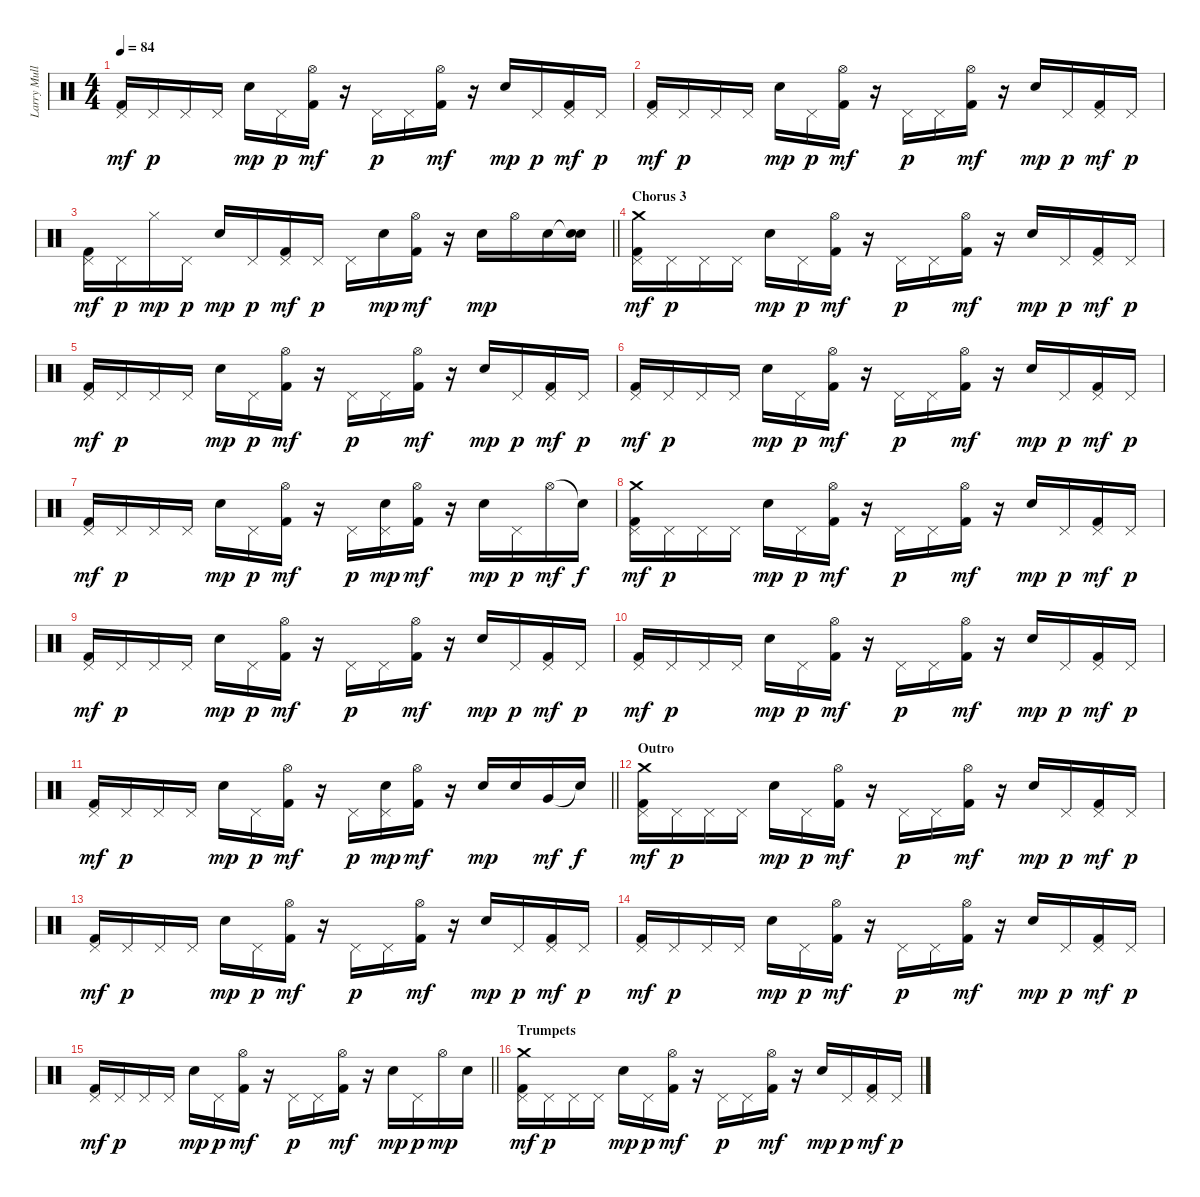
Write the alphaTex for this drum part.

\track ("Larry Mullen Jr." "Larry Mull") {instrument percussion}
\staff {score}
\articulation defaults
\ts (4 4)
\tempo 84
\clef neutral
\ks c
("Pedal Hi-Hat (hit)" "Kick (hit) 2").16{dy mf} "Pedal Hi-Hat (hit)".16{dy p} "Pedal Hi-Hat (hit)".16 "Pedal Hi-Hat (hit)".16 "Electric Snare (hit)".16{dy mp} "Pedal Hi-Hat (hit)".16{dy p} ("Hi-Hat (open)" "Kick (hit) 2").16{dy mf} r.16 "Pedal Hi-Hat (hit)".16{dy p} "Pedal Hi-Hat (hit)".16 ("Hi-Hat (open)" "Kick (hit) 2").16{dy mf} r.16 "Electric Snare (hit)".16{dy mp} "Pedal Hi-Hat (hit)".16{dy p} ("Pedal Hi-Hat (hit)" "Kick (hit) 2").16{dy mf} "Pedal Hi-Hat (hit)".16{dy p} |
("Pedal Hi-Hat (hit)" "Kick (hit) 2").16{dy mf} "Pedal Hi-Hat (hit)".16{dy p} "Pedal Hi-Hat (hit)".16 "Pedal Hi-Hat (hit)".16 "Electric Snare (hit)".16{dy mp} "Pedal Hi-Hat (hit)".16{dy p} ("Hi-Hat (open)" "Kick (hit) 2").16{dy mf} r.16 "Pedal Hi-Hat (hit)".16{dy p} "Pedal Hi-Hat (hit)".16 ("Hi-Hat (open)" "Kick (hit) 2").16{dy mf} r.16 "Electric Snare (hit)".16{dy mp} "Pedal Hi-Hat (hit)".16{dy p} ("Pedal Hi-Hat (hit)" "Kick (hit) 2").16{dy mf} "Pedal Hi-Hat (hit)".16{dy p} |
\barLineRight lightlight
("Pedal Hi-Hat (hit)" "Kick (hit) 2").16{dy mf} "Pedal Hi-Hat (hit)".16{dy p} "Hi-Hat (closed)".16{dy mp} "Pedal Hi-Hat (hit)".16{dy p} "Electric Snare (hit)".16{dy mp} "Pedal Hi-Hat (hit)".16{dy p} ("Pedal Hi-Hat (hit)" "Kick (hit) 2").16{dy mf} "Pedal Hi-Hat (hit)".16{dy p} "Pedal Hi-Hat (hit)".16 "Electric Snare (hit)".16{dy mp} ("Hi-Hat (open)" "Kick (hit) 2").16{dy mf} r.16 "Electric Snare (hit)".16{dy mp} "Hi-Hat (open)".16 "Electric Snare (hit)".16 ("Snare (hit)"{t} "Electric Snare (hit)").16 |
\section ("" "Chorus 3")
("Pedal Hi-Hat (hit)" "Crash medium (hit)" "Kick (hit) 2").16{dy mf} "Pedal Hi-Hat (hit)".16{dy p} "Pedal Hi-Hat (hit)".16 "Pedal Hi-Hat (hit)".16 "Electric Snare (hit)".16{dy mp} "Pedal Hi-Hat (hit)".16{dy p} ("Hi-Hat (open)" "Kick (hit) 2").16{dy mf} r.16 "Pedal Hi-Hat (hit)".16{dy p} "Pedal Hi-Hat (hit)".16 ("Hi-Hat (open)" "Kick (hit) 2").16{dy mf} r.16 "Electric Snare (hit)".16{dy mp} "Pedal Hi-Hat (hit)".16{dy p} ("Pedal Hi-Hat (hit)" "Kick (hit) 2").16{dy mf} "Pedal Hi-Hat (hit)".16{dy p} |
("Pedal Hi-Hat (hit)" "Kick (hit) 2").16{dy mf} "Pedal Hi-Hat (hit)".16{dy p} "Pedal Hi-Hat (hit)".16 "Pedal Hi-Hat (hit)".16 "Electric Snare (hit)".16{dy mp} "Pedal Hi-Hat (hit)".16{dy p} ("Hi-Hat (open)" "Kick (hit) 2").16{dy mf} r.16 "Pedal Hi-Hat (hit)".16{dy p} "Pedal Hi-Hat (hit)".16 ("Hi-Hat (open)" "Kick (hit) 2").16{dy mf} r.16 "Electric Snare (hit)".16{dy mp} "Pedal Hi-Hat (hit)".16{dy p} ("Pedal Hi-Hat (hit)" "Kick (hit) 2").16{dy mf} "Pedal Hi-Hat (hit)".16{dy p} |
("Pedal Hi-Hat (hit)" "Kick (hit) 2").16{dy mf} "Pedal Hi-Hat (hit)".16{dy p} "Pedal Hi-Hat (hit)".16 "Pedal Hi-Hat (hit)".16 "Electric Snare (hit)".16{dy mp} "Pedal Hi-Hat (hit)".16{dy p} ("Hi-Hat (open)" "Kick (hit) 2").16{dy mf} r.16 "Pedal Hi-Hat (hit)".16{dy p} "Pedal Hi-Hat (hit)".16 ("Hi-Hat (open)" "Kick (hit) 2").16{dy mf} r.16 "Electric Snare (hit)".16{dy mp} "Pedal Hi-Hat (hit)".16{dy p} ("Pedal Hi-Hat (hit)" "Kick (hit) 2").16{dy mf} "Pedal Hi-Hat (hit)".16{dy p} |
("Pedal Hi-Hat (hit)" "Kick (hit) 2").16{dy mf} "Pedal Hi-Hat (hit)".16{dy p} "Pedal Hi-Hat (hit)".16 "Pedal Hi-Hat (hit)".16 "Electric Snare (hit)".16{dy mp} "Pedal Hi-Hat (hit)".16{dy p} ("Hi-Hat (open)" "Kick (hit) 2").16{dy mf} r.16 "Pedal Hi-Hat (hit)".16{dy p} ("Pedal Hi-Hat (hit)" "Electric Snare (hit)").16{dy mp} ("Hi-Hat (open)" "Kick (hit) 2").16{dy mf} r.16 "Electric Snare (hit)".16{dy mp} "Pedal Hi-Hat (hit)".16{dy p} "Hi-Hat (open)".16{dy mf} "Snare (hit)"{t}.16{dy f} |
("Pedal Hi-Hat (hit)" "Crash medium (hit)" "Kick (hit) 2").16{dy mf} "Pedal Hi-Hat (hit)".16{dy p} "Pedal Hi-Hat (hit)".16 "Pedal Hi-Hat (hit)".16 "Electric Snare (hit)".16{dy mp} "Pedal Hi-Hat (hit)".16{dy p} ("Hi-Hat (open)" "Kick (hit) 2").16{dy mf} r.16 "Pedal Hi-Hat (hit)".16{dy p} "Pedal Hi-Hat (hit)".16 ("Hi-Hat (open)" "Kick (hit) 2").16{dy mf} r.16 "Electric Snare (hit)".16{dy mp} "Pedal Hi-Hat (hit)".16{dy p} ("Pedal Hi-Hat (hit)" "Kick (hit) 2").16{dy mf} "Pedal Hi-Hat (hit)".16{dy p} |
("Pedal Hi-Hat (hit)" "Kick (hit) 2").16{dy mf} "Pedal Hi-Hat (hit)".16{dy p} "Pedal Hi-Hat (hit)".16 "Pedal Hi-Hat (hit)".16 "Electric Snare (hit)".16{dy mp} "Pedal Hi-Hat (hit)".16{dy p} ("Hi-Hat (open)" "Kick (hit) 2").16{dy mf} r.16 "Pedal Hi-Hat (hit)".16{dy p} "Pedal Hi-Hat (hit)".16 ("Hi-Hat (open)" "Kick (hit) 2").16{dy mf} r.16 "Electric Snare (hit)".16{dy mp} "Pedal Hi-Hat (hit)".16{dy p} ("Pedal Hi-Hat (hit)" "Kick (hit) 2").16{dy mf} "Pedal Hi-Hat (hit)".16{dy p} |
("Pedal Hi-Hat (hit)" "Kick (hit) 2").16{dy mf} "Pedal Hi-Hat (hit)".16{dy p} "Pedal Hi-Hat (hit)".16 "Pedal Hi-Hat (hit)".16 "Electric Snare (hit)".16{dy mp} "Pedal Hi-Hat (hit)".16{dy p} ("Hi-Hat (open)" "Kick (hit) 2").16{dy mf} r.16 "Pedal Hi-Hat (hit)".16{dy p} "Pedal Hi-Hat (hit)".16 ("Hi-Hat (open)" "Kick (hit) 2").16{dy mf} r.16 "Electric Snare (hit)".16{dy mp} "Pedal Hi-Hat (hit)".16{dy p} ("Pedal Hi-Hat (hit)" "Kick (hit) 2").16{dy mf} "Pedal Hi-Hat (hit)".16{dy p} |
\barLineRight lightlight
("Pedal Hi-Hat (hit)" "Kick (hit) 2").16{dy mf} "Pedal Hi-Hat (hit)".16{dy p} "Pedal Hi-Hat (hit)".16 "Pedal Hi-Hat (hit)".16 "Electric Snare (hit)".16{dy mp} "Pedal Hi-Hat (hit)".16{dy p} ("Hi-Hat (open)" "Kick (hit) 2").16{dy mf} r.16 "Pedal Hi-Hat (hit)".16{dy p} ("Pedal Hi-Hat (hit)" "Electric Snare (hit)").16{dy mp} ("Hi-Hat (open)" "Kick (hit) 2").16{dy mf} r.16 "Electric Snare (hit)".16{dy mp} "Electric Snare (hit)".16 "Very Low Tom (hit)".16{dy mf} "Snare (hit)"{t}.16{dy f} |
\section ("" "Outro")
("Pedal Hi-Hat (hit)" "Crash medium (hit)" "Kick (hit) 2").16{dy mf} "Pedal Hi-Hat (hit)".16{dy p} "Pedal Hi-Hat (hit)".16 "Pedal Hi-Hat (hit)".16 "Electric Snare (hit)".16{dy mp} "Pedal Hi-Hat (hit)".16{dy p} ("Hi-Hat (open)" "Kick (hit) 2").16{dy mf} r.16 "Pedal Hi-Hat (hit)".16{dy p} "Pedal Hi-Hat (hit)".16 ("Hi-Hat (open)" "Kick (hit) 2").16{dy mf} r.16 "Electric Snare (hit)".16{dy mp} "Pedal Hi-Hat (hit)".16{dy p} ("Pedal Hi-Hat (hit)" "Kick (hit) 2").16{dy mf} "Pedal Hi-Hat (hit)".16{dy p} |
("Pedal Hi-Hat (hit)" "Kick (hit) 2").16{dy mf} "Pedal Hi-Hat (hit)".16{dy p} "Pedal Hi-Hat (hit)".16 "Pedal Hi-Hat (hit)".16 "Electric Snare (hit)".16{dy mp} "Pedal Hi-Hat (hit)".16{dy p} ("Hi-Hat (open)" "Kick (hit) 2").16{dy mf} r.16 "Pedal Hi-Hat (hit)".16{dy p} "Pedal Hi-Hat (hit)".16 ("Hi-Hat (open)" "Kick (hit) 2").16{dy mf} r.16 "Electric Snare (hit)".16{dy mp} "Pedal Hi-Hat (hit)".16{dy p} ("Pedal Hi-Hat (hit)" "Kick (hit) 2").16{dy mf} "Pedal Hi-Hat (hit)".16{dy p} |
("Pedal Hi-Hat (hit)" "Kick (hit) 2").16{dy mf} "Pedal Hi-Hat (hit)".16{dy p} "Pedal Hi-Hat (hit)".16 "Pedal Hi-Hat (hit)".16 "Electric Snare (hit)".16{dy mp} "Pedal Hi-Hat (hit)".16{dy p} ("Hi-Hat (open)" "Kick (hit) 2").16{dy mf} r.16 "Pedal Hi-Hat (hit)".16{dy p} "Pedal Hi-Hat (hit)".16 ("Hi-Hat (open)" "Kick (hit) 2").16{dy mf} r.16 "Electric Snare (hit)".16{dy mp} "Pedal Hi-Hat (hit)".16{dy p} ("Pedal Hi-Hat (hit)" "Kick (hit) 2").16{dy mf} "Pedal Hi-Hat (hit)".16{dy p} |
\barLineRight lightlight
("Pedal Hi-Hat (hit)" "Kick (hit) 2").16{dy mf} "Pedal Hi-Hat (hit)".16{dy p} "Pedal Hi-Hat (hit)".16 "Pedal Hi-Hat (hit)".16 "Electric Snare (hit)".16{dy mp} "Pedal Hi-Hat (hit)".16{dy p} ("Hi-Hat (open)" "Kick (hit) 2").16{dy mf} r.16 "Pedal Hi-Hat (hit)".16{dy p} "Pedal Hi-Hat (hit)".16 ("Hi-Hat (open)" "Kick (hit) 2").16{dy mf} r.16 "Electric Snare (hit)".16{dy mp} "Pedal Hi-Hat (hit)".16{dy p} "Hi-Hat (open)".16{dy mp} "Electric Snare (hit)".16 |
\section ("" "Trumpets")
("Pedal Hi-Hat (hit)" "Crash medium (hit)" "Kick (hit) 2").16{dy mf} "Pedal Hi-Hat (hit)".16{dy p} "Pedal Hi-Hat (hit)".16 "Pedal Hi-Hat (hit)".16 "Electric Snare (hit)".16{dy mp} "Pedal Hi-Hat (hit)".16{dy p} ("Hi-Hat (open)" "Kick (hit) 2").16{dy mf} r.16 "Pedal Hi-Hat (hit)".16{dy p} "Pedal Hi-Hat (hit)".16 ("Hi-Hat (open)" "Kick (hit) 2").16{dy mf} r.16 "Electric Snare (hit)".16{dy mp} "Pedal Hi-Hat (hit)".16{dy p} ("Pedal Hi-Hat (hit)" "Kick (hit) 2").16{dy mf} "Pedal Hi-Hat (hit)".16{dy p}
